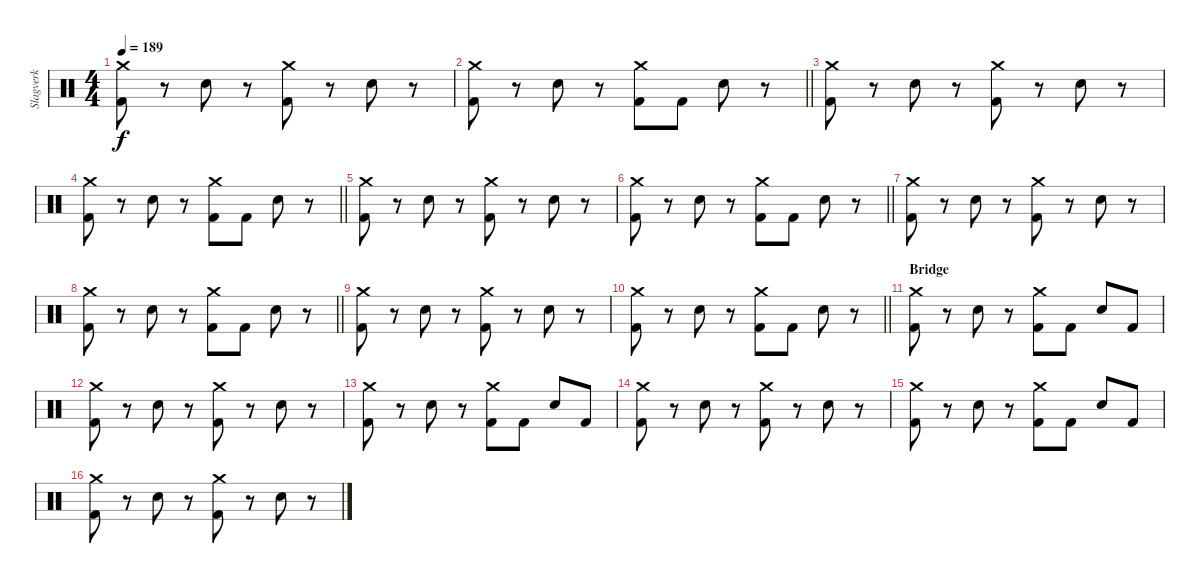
\track ("Slagverk" "Slagverk") {instrument percussion}
\staff {score}
\articulation defaults
\ts (4 4)
\tempo 189
\clef neutral
\ks c
("Crash medium (hit)" "Kick (hit) 2").8{dy f} r.8 "Snare (hit) 2".8 r.8 ("Crash medium (hit)" "Kick (hit) 2").8 r.8 "Snare (hit) 2".8 r.8 |
\barLineRight lightlight
("Crash medium (hit)" "Kick (hit) 2").8 r.8 "Snare (hit) 2".8 r.8 ("Crash medium (hit)" "Kick (hit) 2").8 "Kick (hit) 2".8 "Snare (hit) 2".8 r.8 |
("Crash medium (hit)" "Kick (hit) 2").8 r.8 "Snare (hit) 2".8 r.8 ("Crash medium (hit)" "Kick (hit) 2").8 r.8 "Snare (hit) 2".8 r.8 |
\barLineRight lightlight
("Crash medium (hit)" "Kick (hit) 2").8 r.8 "Snare (hit) 2".8 r.8 ("Crash medium (hit)" "Kick (hit) 2").8 "Kick (hit) 2".8 "Snare (hit) 2".8 r.8 |
("Crash medium (hit)" "Kick (hit) 2").8 r.8 "Snare (hit) 2".8 r.8 ("Crash medium (hit)" "Kick (hit) 2").8 r.8 "Snare (hit) 2".8 r.8 |
\barLineRight lightlight
("Crash medium (hit)" "Kick (hit) 2").8 r.8 "Snare (hit) 2".8 r.8 ("Crash medium (hit)" "Kick (hit) 2").8 "Kick (hit) 2".8 "Snare (hit) 2".8 r.8 |
("Crash medium (hit)" "Kick (hit) 2").8 r.8 "Snare (hit) 2".8 r.8 ("Crash medium (hit)" "Kick (hit) 2").8 r.8 "Snare (hit) 2".8 r.8 |
\barLineRight lightlight
("Crash medium (hit)" "Kick (hit) 2").8 r.8 "Snare (hit) 2".8 r.8 ("Crash medium (hit)" "Kick (hit) 2").8 "Kick (hit) 2".8 "Snare (hit) 2".8 r.8 |
("Crash medium (hit)" "Kick (hit) 2").8 r.8 "Snare (hit) 2".8 r.8 ("Crash medium (hit)" "Kick (hit) 2").8 r.8 "Snare (hit) 2".8 r.8 |
\barLineRight lightlight
("Crash medium (hit)" "Kick (hit) 2").8 r.8 "Snare (hit) 2".8 r.8 ("Crash medium (hit)" "Kick (hit) 2").8 "Kick (hit) 2".8 "Snare (hit) 2".8 r.8 |
\section ("" "Bridge")
("Crash medium (hit)" "Kick (hit) 2").8 r.8 "Snare (hit) 2".8 r.8 ("Crash medium (hit)" "Kick (hit) 2").8 "Kick (hit) 2".8 "Snare (hit) 2".8 "Kick (hit) 2".8 |
("Crash medium (hit)" "Kick (hit) 2").8 r.8 "Snare (hit) 2".8 r.8 ("Crash medium (hit)" "Kick (hit) 2").8 r.8 "Snare (hit) 2".8 r.8 |
("Crash medium (hit)" "Kick (hit) 2").8 r.8 "Snare (hit) 2".8 r.8 ("Crash medium (hit)" "Kick (hit) 2").8 "Kick (hit) 2".8 "Snare (hit) 2".8 "Kick (hit) 2".8 |
("Crash medium (hit)" "Kick (hit) 2").8 r.8 "Snare (hit) 2".8 r.8 ("Crash medium (hit)" "Kick (hit) 2").8 r.8 "Snare (hit) 2".8 r.8 |
("Crash medium (hit)" "Kick (hit) 2").8 r.8 "Snare (hit) 2".8 r.8 ("Crash medium (hit)" "Kick (hit) 2").8 "Kick (hit) 2".8 "Snare (hit) 2".8 "Kick (hit) 2".8 |
("Crash medium (hit)" "Kick (hit) 2").8 r.8 "Snare (hit) 2".8 r.8 ("Crash medium (hit)" "Kick (hit) 2").8 r.8 "Snare (hit) 2".8 r.8
